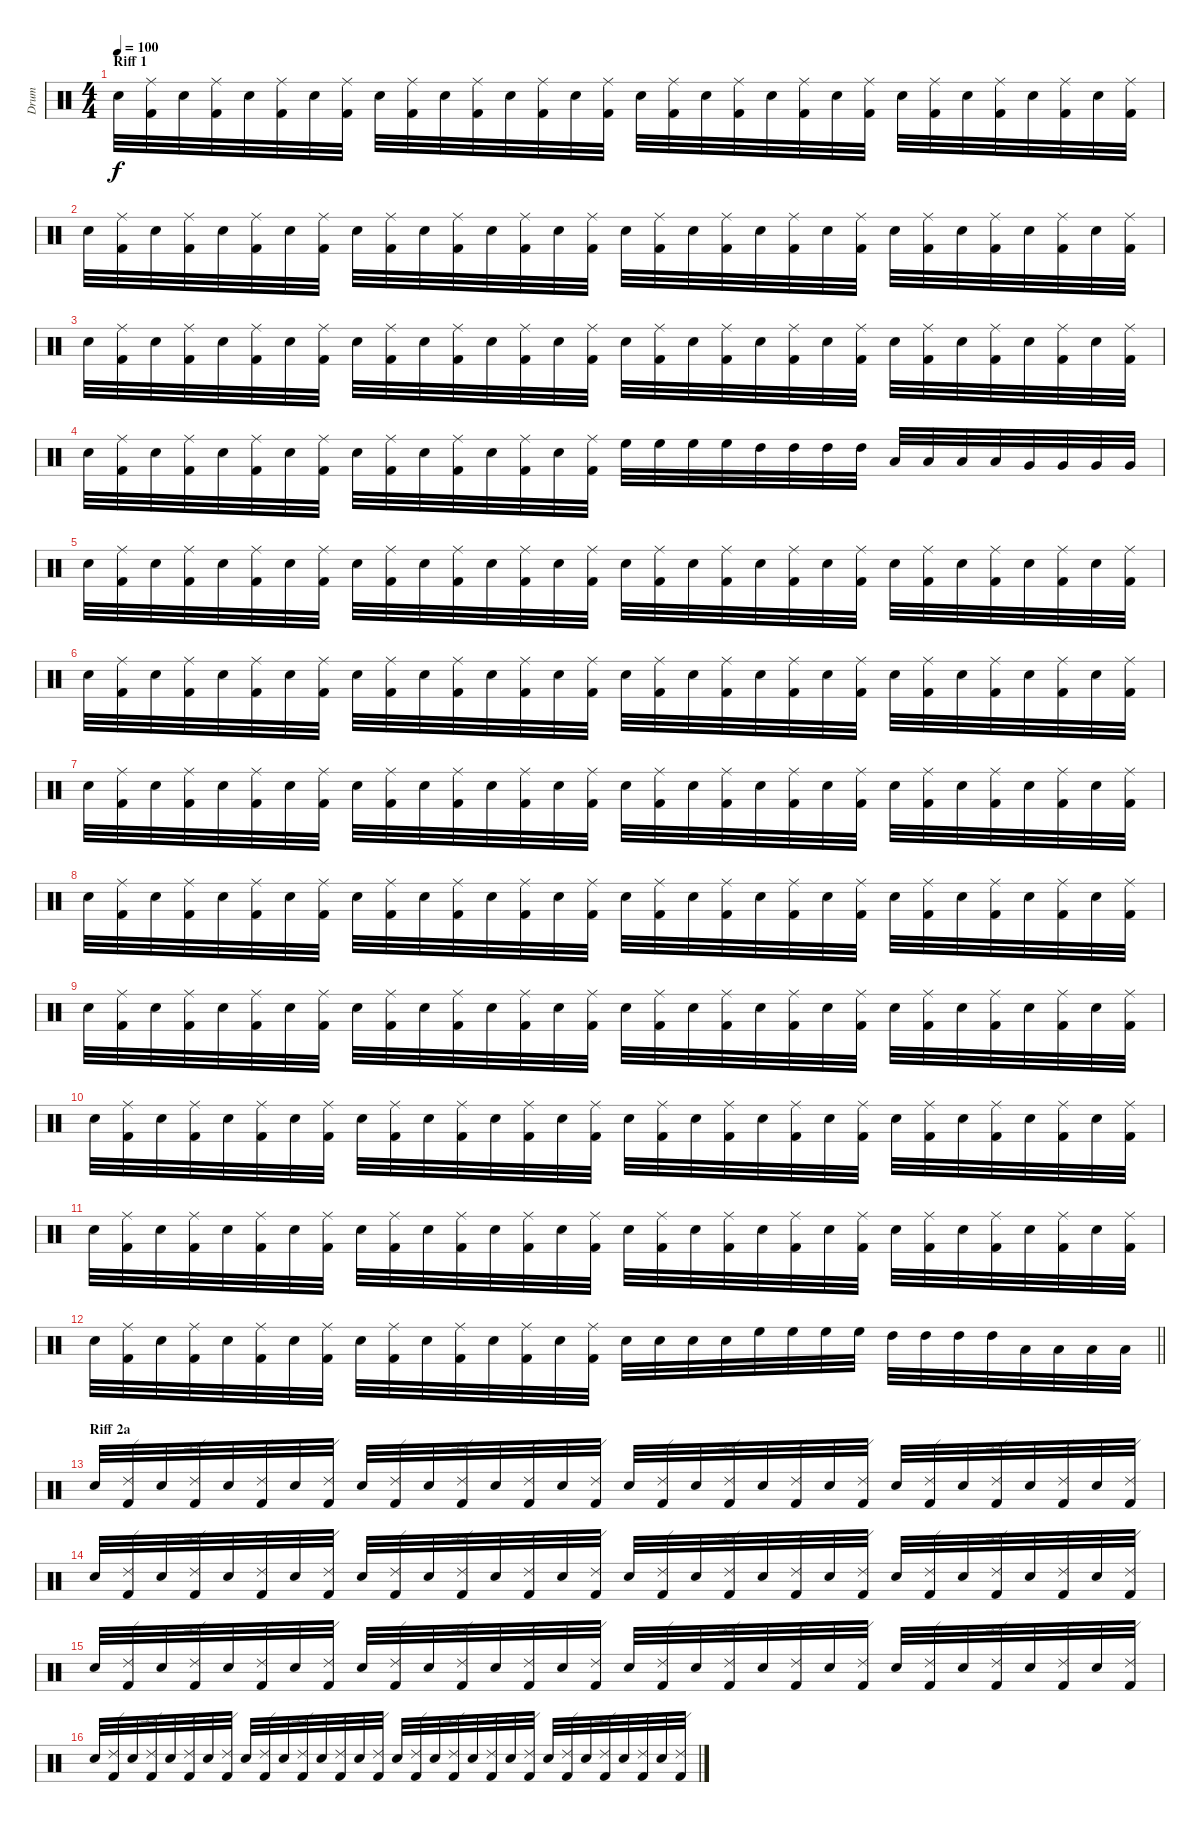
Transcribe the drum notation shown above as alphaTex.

\track ("Drum" "Drum") {instrument percussion}
\staff {score}
\articulation defaults
\ts (4 4)
\section ("" "Riff 1")
\tempo 100
\clef neutral
\ks c "Electric Snare (hit)".32{dy f}
("Ride (middle)" "Kick (hit) 2").32 "Electric Snare (hit)".32 ("Ride (middle)" "Kick (hit) 2").32 "Electric Snare (hit)".32 ("Ride (middle)" "Kick (hit) 2").32 "Electric Snare (hit)".32 ("Ride (middle)" "Kick (hit) 2").32 "Electric Snare (hit)".32 ("Ride (middle)" "Kick (hit) 2").32 "Electric Snare (hit)".32 ("Ride (middle)" "Kick (hit) 2").32 "Electric Snare (hit)".32 ("Ride (middle)" "Kick (hit) 2").32 "Electric Snare (hit)".32 ("Ride (middle)" "Kick (hit) 2").32 "Electric Snare (hit)".32 ("Ride (middle)" "Kick (hit) 2").32 "Electric Snare (hit)".32 ("Ride (middle)" "Kick (hit) 2").32 "Electric Snare (hit)".32 ("Ride (middle)" "Kick (hit) 2").32 "Electric Snare (hit)".32 ("Ride (middle)" "Kick (hit) 2").32 "Electric Snare (hit)".32 ("Ride (middle)" "Kick (hit) 2").32 "Electric Snare (hit)".32 ("Ride (middle)" "Kick (hit) 2").32 "Electric Snare (hit)".32 ("Ride (middle)" "Kick (hit) 2").32 "Electric Snare (hit)".32 ("Ride (middle)" "Kick (hit) 2").32 |
"Electric Snare (hit)".32 ("Ride (middle)" "Kick (hit) 2").32 "Electric Snare (hit)".32 ("Ride (middle)" "Kick (hit) 2").32 "Electric Snare (hit)".32 ("Ride (middle)" "Kick (hit) 2").32 "Electric Snare (hit)".32 ("Ride (middle)" "Kick (hit) 2").32 "Electric Snare (hit)".32 ("Ride (middle)" "Kick (hit) 2").32 "Electric Snare (hit)".32 ("Ride (middle)" "Kick (hit) 2").32 "Electric Snare (hit)".32 ("Ride (middle)" "Kick (hit) 2").32 "Electric Snare (hit)".32 ("Ride (middle)" "Kick (hit) 2").32 "Electric Snare (hit)".32 ("Ride (middle)" "Kick (hit) 2").32 "Electric Snare (hit)".32 ("Ride (middle)" "Kick (hit) 2").32 "Electric Snare (hit)".32 ("Ride (middle)" "Kick (hit) 2").32 "Electric Snare (hit)".32 ("Ride (middle)" "Kick (hit) 2").32 "Electric Snare (hit)".32 ("Ride (middle)" "Kick (hit) 2").32 "Electric Snare (hit)".32 ("Ride (middle)" "Kick (hit) 2").32 "Electric Snare (hit)".32 ("Ride (middle)" "Kick (hit) 2").32 "Electric Snare (hit)".32 ("Ride (middle)" "Kick (hit) 2").32 |
"Electric Snare (hit)".32 ("Ride (middle)" "Kick (hit) 2").32 "Electric Snare (hit)".32 ("Ride (middle)" "Kick (hit) 2").32 "Electric Snare (hit)".32 ("Ride (middle)" "Kick (hit) 2").32 "Electric Snare (hit)".32 ("Ride (middle)" "Kick (hit) 2").32 "Electric Snare (hit)".32 ("Ride (middle)" "Kick (hit) 2").32 "Electric Snare (hit)".32 ("Ride (middle)" "Kick (hit) 2").32 "Electric Snare (hit)".32 ("Ride (middle)" "Kick (hit) 2").32 "Electric Snare (hit)".32 ("Ride (middle)" "Kick (hit) 2").32 "Electric Snare (hit)".32 ("Ride (middle)" "Kick (hit) 2").32 "Electric Snare (hit)".32 ("Ride (middle)" "Kick (hit) 2").32 "Electric Snare (hit)".32 ("Ride (middle)" "Kick (hit) 2").32 "Electric Snare (hit)".32 ("Ride (middle)" "Kick (hit) 2").32 "Electric Snare (hit)".32 ("Ride (middle)" "Kick (hit) 2").32 "Electric Snare (hit)".32 ("Ride (middle)" "Kick (hit) 2").32 "Electric Snare (hit)".32 ("Ride (middle)" "Kick (hit) 2").32 "Electric Snare (hit)".32 ("Ride (middle)" "Kick (hit) 2").32 |
"Electric Snare (hit)".32 ("Ride (middle)" "Kick (hit) 2").32 "Electric Snare (hit)".32 ("Ride (middle)" "Kick (hit) 2").32 "Electric Snare (hit)".32 ("Ride (middle)" "Kick (hit) 2").32 "Electric Snare (hit)".32 ("Ride (middle)" "Kick (hit) 2").32 "Electric Snare (hit)".32 ("Ride (middle)" "Kick (hit) 2").32 "Electric Snare (hit)".32 ("Ride (middle)" "Kick (hit) 2").32 "Electric Snare (hit)".32 ("Ride (middle)" "Kick (hit) 2").32 "Electric Snare (hit)".32 ("Ride (middle)" "Kick (hit) 2").32 "High Floor Tom (hit)".32 "High Floor Tom (hit)".32 "High Floor Tom (hit)".32 "High Floor Tom (hit)".32 "High Tom (hit)".32 "High Tom (hit)".32 "High Tom (hit)".32 "High Tom (hit)".32 "Low Tom (hit)".32 "Low Tom (hit)".32 "Low Tom (hit)".32 "Low Tom (hit)".32 "Very Low Tom (hit)".32 "Very Low Tom (hit)".32 "Very Low Tom (hit)".32 "Very Low Tom (hit)".32 |
"Electric Snare (hit)".32 ("Ride (middle)" "Kick (hit) 2").32 "Electric Snare (hit)".32 ("Ride (middle)" "Kick (hit) 2").32 "Electric Snare (hit)".32 ("Ride (middle)" "Kick (hit) 2").32 "Electric Snare (hit)".32 ("Ride (middle)" "Kick (hit) 2").32 "Electric Snare (hit)".32 ("Ride (middle)" "Kick (hit) 2").32 "Electric Snare (hit)".32 ("Ride (middle)" "Kick (hit) 2").32 "Electric Snare (hit)".32 ("Ride (middle)" "Kick (hit) 2").32 "Electric Snare (hit)".32 ("Ride (middle)" "Kick (hit) 2").32 "Electric Snare (hit)".32 ("Ride (middle)" "Kick (hit) 2").32 "Electric Snare (hit)".32 ("Ride (middle)" "Kick (hit) 2").32 "Electric Snare (hit)".32 ("Ride (middle)" "Kick (hit) 2").32 "Electric Snare (hit)".32 ("Ride (middle)" "Kick (hit) 2").32 "Electric Snare (hit)".32 ("Ride (middle)" "Kick (hit) 2").32 "Electric Snare (hit)".32 ("Ride (middle)" "Kick (hit) 2").32 "Electric Snare (hit)".32 ("Ride (middle)" "Kick (hit) 2").32 "Electric Snare (hit)".32 ("Ride (middle)" "Kick (hit) 2").32 |
"Electric Snare (hit)".32 ("Ride (middle)" "Kick (hit) 2").32 "Electric Snare (hit)".32 ("Ride (middle)" "Kick (hit) 2").32 "Electric Snare (hit)".32 ("Ride (middle)" "Kick (hit) 2").32 "Electric Snare (hit)".32 ("Ride (middle)" "Kick (hit) 2").32 "Electric Snare (hit)".32 ("Ride (middle)" "Kick (hit) 2").32 "Electric Snare (hit)".32 ("Ride (middle)" "Kick (hit) 2").32 "Electric Snare (hit)".32 ("Ride (middle)" "Kick (hit) 2").32 "Electric Snare (hit)".32 ("Ride (middle)" "Kick (hit) 2").32 "Electric Snare (hit)".32 ("Ride (middle)" "Kick (hit) 2").32 "Electric Snare (hit)".32 ("Ride (middle)" "Kick (hit) 2").32 "Electric Snare (hit)".32 ("Ride (middle)" "Kick (hit) 2").32 "Electric Snare (hit)".32 ("Ride (middle)" "Kick (hit) 2").32 "Electric Snare (hit)".32 ("Ride (middle)" "Kick (hit) 2").32 "Electric Snare (hit)".32 ("Ride (middle)" "Kick (hit) 2").32 "Electric Snare (hit)".32 ("Ride (middle)" "Kick (hit) 2").32 "Electric Snare (hit)".32 ("Ride (middle)" "Kick (hit) 2").32 |
"Electric Snare (hit)".32 ("Ride (middle)" "Kick (hit) 2").32 "Electric Snare (hit)".32 ("Ride (middle)" "Kick (hit) 2").32 "Electric Snare (hit)".32 ("Ride (middle)" "Kick (hit) 2").32 "Electric Snare (hit)".32 ("Ride (middle)" "Kick (hit) 2").32 "Electric Snare (hit)".32 ("Ride (middle)" "Kick (hit) 2").32 "Electric Snare (hit)".32 ("Ride (middle)" "Kick (hit) 2").32 "Electric Snare (hit)".32 ("Ride (middle)" "Kick (hit) 2").32 "Electric Snare (hit)".32 ("Ride (middle)" "Kick (hit) 2").32 "Electric Snare (hit)".32 ("Ride (middle)" "Kick (hit) 2").32 "Electric Snare (hit)".32 ("Ride (middle)" "Kick (hit) 2").32 "Electric Snare (hit)".32 ("Ride (middle)" "Kick (hit) 2").32 "Electric Snare (hit)".32 ("Ride (middle)" "Kick (hit) 2").32 "Electric Snare (hit)".32 ("Ride (middle)" "Kick (hit) 2").32 "Electric Snare (hit)".32 ("Ride (middle)" "Kick (hit) 2").32 "Electric Snare (hit)".32 ("Ride (middle)" "Kick (hit) 2").32 "Electric Snare (hit)".32 ("Ride (middle)" "Kick (hit) 2").32 |
"Electric Snare (hit)".32 ("Ride (middle)" "Kick (hit) 2").32 "Electric Snare (hit)".32 ("Ride (middle)" "Kick (hit) 2").32 "Electric Snare (hit)".32 ("Ride (middle)" "Kick (hit) 2").32 "Electric Snare (hit)".32 ("Ride (middle)" "Kick (hit) 2").32 "Electric Snare (hit)".32 ("Ride (middle)" "Kick (hit) 2").32 "Electric Snare (hit)".32 ("Ride (middle)" "Kick (hit) 2").32 "Electric Snare (hit)".32 ("Ride (middle)" "Kick (hit) 2").32 "Electric Snare (hit)".32 ("Ride (middle)" "Kick (hit) 2").32 "Electric Snare (hit)".32 ("Ride (middle)" "Kick (hit) 2").32 "Electric Snare (hit)".32 ("Ride (middle)" "Kick (hit) 2").32 "Electric Snare (hit)".32 ("Ride (middle)" "Kick (hit) 2").32 "Electric Snare (hit)".32 ("Ride (middle)" "Kick (hit) 2").32 "Electric Snare (hit)".32 ("Ride (middle)" "Kick (hit) 2").32 "Electric Snare (hit)".32 ("Ride (middle)" "Kick (hit) 2").32 "Electric Snare (hit)".32 ("Ride (middle)" "Kick (hit) 2").32 "Electric Snare (hit)".32 ("Ride (middle)" "Kick (hit) 2").32 |
"Electric Snare (hit)".32 ("Ride (middle)" "Kick (hit) 2").32 "Electric Snare (hit)".32 ("Ride (middle)" "Kick (hit) 2").32 "Electric Snare (hit)".32 ("Ride (middle)" "Kick (hit) 2").32 "Electric Snare (hit)".32 ("Ride (middle)" "Kick (hit) 2").32 "Electric Snare (hit)".32 ("Ride (middle)" "Kick (hit) 2").32 "Electric Snare (hit)".32 ("Ride (middle)" "Kick (hit) 2").32 "Electric Snare (hit)".32 ("Ride (middle)" "Kick (hit) 2").32 "Electric Snare (hit)".32 ("Ride (middle)" "Kick (hit) 2").32 "Electric Snare (hit)".32 ("Ride (middle)" "Kick (hit) 2").32 "Electric Snare (hit)".32 ("Ride (middle)" "Kick (hit) 2").32 "Electric Snare (hit)".32 ("Ride (middle)" "Kick (hit) 2").32 "Electric Snare (hit)".32 ("Ride (middle)" "Kick (hit) 2").32 "Electric Snare (hit)".32 ("Ride (middle)" "Kick (hit) 2").32 "Electric Snare (hit)".32 ("Ride (middle)" "Kick (hit) 2").32 "Electric Snare (hit)".32 ("Ride (middle)" "Kick (hit) 2").32 "Electric Snare (hit)".32 ("Ride (middle)" "Kick (hit) 2").32 |
"Electric Snare (hit)".32 ("Ride (middle)" "Kick (hit) 2").32 "Electric Snare (hit)".32 ("Ride (middle)" "Kick (hit) 2").32 "Electric Snare (hit)".32 ("Ride (middle)" "Kick (hit) 2").32 "Electric Snare (hit)".32 ("Ride (middle)" "Kick (hit) 2").32 "Electric Snare (hit)".32 ("Ride (middle)" "Kick (hit) 2").32 "Electric Snare (hit)".32 ("Ride (middle)" "Kick (hit) 2").32 "Electric Snare (hit)".32 ("Ride (middle)" "Kick (hit) 2").32 "Electric Snare (hit)".32 ("Ride (middle)" "Kick (hit) 2").32 "Electric Snare (hit)".32 ("Ride (middle)" "Kick (hit) 2").32 "Electric Snare (hit)".32 ("Ride (middle)" "Kick (hit) 2").32 "Electric Snare (hit)".32 ("Ride (middle)" "Kick (hit) 2").32 "Electric Snare (hit)".32 ("Ride (middle)" "Kick (hit) 2").32 "Electric Snare (hit)".32 ("Ride (middle)" "Kick (hit) 2").32 "Electric Snare (hit)".32 ("Ride (middle)" "Kick (hit) 2").32 "Electric Snare (hit)".32 ("Ride (middle)" "Kick (hit) 2").32 "Electric Snare (hit)".32 ("Ride (middle)" "Kick (hit) 2").32 |
"Electric Snare (hit)".32 ("Ride (middle)" "Kick (hit) 2").32 "Electric Snare (hit)".32 ("Ride (middle)" "Kick (hit) 2").32 "Electric Snare (hit)".32 ("Ride (middle)" "Kick (hit) 2").32 "Electric Snare (hit)".32 ("Ride (middle)" "Kick (hit) 2").32 "Electric Snare (hit)".32 ("Ride (middle)" "Kick (hit) 2").32 "Electric Snare (hit)".32 ("Ride (middle)" "Kick (hit) 2").32 "Electric Snare (hit)".32 ("Ride (middle)" "Kick (hit) 2").32 "Electric Snare (hit)".32 ("Ride (middle)" "Kick (hit) 2").32 "Electric Snare (hit)".32 ("Ride (middle)" "Kick (hit) 2").32 "Electric Snare (hit)".32 ("Ride (middle)" "Kick (hit) 2").32 "Electric Snare (hit)".32 ("Ride (middle)" "Kick (hit) 2").32 "Electric Snare (hit)".32 ("Ride (middle)" "Kick (hit) 2").32 "Electric Snare (hit)".32 ("Ride (middle)" "Kick (hit) 2").32 "Electric Snare (hit)".32 ("Ride (middle)" "Kick (hit) 2").32 "Electric Snare (hit)".32 ("Ride (middle)" "Kick (hit) 2").32 "Electric Snare (hit)".32 ("Ride (middle)" "Kick (hit) 2").32 |
\barLineRight lightlight "Electric Snare (hit)".32
("Ride (middle)" "Kick (hit) 2").32 "Electric Snare (hit)".32 ("Ride (middle)" "Kick (hit) 2").32 "Electric Snare (hit)".32 ("Ride (middle)" "Kick (hit) 2").32 "Electric Snare (hit)".32 ("Ride (middle)" "Kick (hit) 2").32 "Electric Snare (hit)".32 ("Ride (middle)" "Kick (hit) 2").32 "Electric Snare (hit)".32 ("Ride (middle)" "Kick (hit) 2").32 "Electric Snare (hit)".32 ("Ride (middle)" "Kick (hit) 2").32 "Electric Snare (hit)".32 ("Ride (middle)" "Kick (hit) 2").32 "Electric Snare (hit)".32 "Electric Snare (hit)".32 "Electric Snare (hit)".32 "Electric Snare (hit)".32 "High Floor Tom (hit)".32 "High Floor Tom (hit)".32 "High Floor Tom (hit)".32 "High Floor Tom (hit)".32 "High Tom (hit)".32 "High Tom (hit)".32 "High Tom (hit)".32 "High Tom (hit)".32 "Low Tom (hit)".32 "Low Tom (hit)".32 "Low Tom (hit)".32 "Low Tom (hit)".32 |
\section ("" "Riff 2a")
"Electric Snare (hit)".32 ("Ride (edge) 2" "Kick (hit) 2").32 "Electric Snare (hit)".32 ("Ride (edge) 2" "Kick (hit) 2").32 "Electric Snare (hit)".32 ("Ride (edge) 2" "Kick (hit) 2").32 "Electric Snare (hit)".32 ("Ride (edge) 2" "Kick (hit) 2").32 "Electric Snare (hit)".32 ("Ride (edge) 2" "Kick (hit) 2").32 "Electric Snare (hit)".32 ("Ride (edge) 2" "Kick (hit) 2").32 "Electric Snare (hit)".32 ("Ride (edge) 2" "Kick (hit) 2").32 "Electric Snare (hit)".32 ("Ride (edge) 2" "Kick (hit) 2").32 "Electric Snare (hit)".32 ("Ride (edge) 2" "Kick (hit) 2").32 "Electric Snare (hit)".32 ("Ride (edge) 2" "Kick (hit) 2").32 "Electric Snare (hit)".32 ("Ride (edge) 2" "Kick (hit) 2").32 "Electric Snare (hit)".32 ("Ride (edge) 2" "Kick (hit) 2").32 "Electric Snare (hit)".32 ("Ride (edge) 2" "Kick (hit) 2").32 "Electric Snare (hit)".32 ("Ride (edge) 2" "Kick (hit) 2").32 "Electric Snare (hit)".32 ("Ride (edge) 2" "Kick (hit) 2").32 "Electric Snare (hit)".32 ("Ride (edge) 2" "Kick (hit) 2").32 |
"Electric Snare (hit)".32 ("Ride (edge) 2" "Kick (hit) 2").32 "Electric Snare (hit)".32 ("Ride (edge) 2" "Kick (hit) 2").32 "Electric Snare (hit)".32 ("Ride (edge) 2" "Kick (hit) 2").32 "Electric Snare (hit)".32 ("Ride (edge) 2" "Kick (hit) 2").32 "Electric Snare (hit)".32 ("Ride (edge) 2" "Kick (hit) 2").32 "Electric Snare (hit)".32 ("Ride (edge) 2" "Kick (hit) 2").32 "Electric Snare (hit)".32 ("Ride (edge) 2" "Kick (hit) 2").32 "Electric Snare (hit)".32 ("Ride (edge) 2" "Kick (hit) 2").32 "Electric Snare (hit)".32 ("Ride (edge) 2" "Kick (hit) 2").32 "Electric Snare (hit)".32 ("Ride (edge) 2" "Kick (hit) 2").32 "Electric Snare (hit)".32 ("Ride (edge) 2" "Kick (hit) 2").32 "Electric Snare (hit)".32 ("Ride (edge) 2" "Kick (hit) 2").32 "Electric Snare (hit)".32 ("Ride (edge) 2" "Kick (hit) 2").32 "Electric Snare (hit)".32 ("Ride (edge) 2" "Kick (hit) 2").32 "Electric Snare (hit)".32 ("Ride (edge) 2" "Kick (hit) 2").32 "Electric Snare (hit)".32 ("Ride (edge) 2" "Kick (hit) 2").32 |
"Electric Snare (hit)".32 ("Ride (edge) 2" "Kick (hit) 2").32 "Electric Snare (hit)".32 ("Ride (edge) 2" "Kick (hit) 2").32 "Electric Snare (hit)".32 ("Ride (edge) 2" "Kick (hit) 2").32 "Electric Snare (hit)".32 ("Ride (edge) 2" "Kick (hit) 2").32 "Electric Snare (hit)".32 ("Ride (edge) 2" "Kick (hit) 2").32 "Electric Snare (hit)".32 ("Ride (edge) 2" "Kick (hit) 2").32 "Electric Snare (hit)".32 ("Ride (edge) 2" "Kick (hit) 2").32 "Electric Snare (hit)".32 ("Ride (edge) 2" "Kick (hit) 2").32 "Electric Snare (hit)".32 ("Ride (edge) 2" "Kick (hit) 2").32 "Electric Snare (hit)".32 ("Ride (edge) 2" "Kick (hit) 2").32 "Electric Snare (hit)".32 ("Ride (edge) 2" "Kick (hit) 2").32 "Electric Snare (hit)".32 ("Ride (edge) 2" "Kick (hit) 2").32 "Electric Snare (hit)".32 ("Ride (edge) 2" "Kick (hit) 2").32 "Electric Snare (hit)".32 ("Ride (edge) 2" "Kick (hit) 2").32 "Electric Snare (hit)".32 ("Ride (edge) 2" "Kick (hit) 2").32 "Electric Snare (hit)".32 ("Ride (edge) 2" "Kick (hit) 2").32 |
"Electric Snare (hit)".32 ("Ride (edge) 2" "Kick (hit) 2").32 "Electric Snare (hit)".32 ("Ride (edge) 2" "Kick (hit) 2").32 "Electric Snare (hit)".32 ("Ride (edge) 2" "Kick (hit) 2").32 "Electric Snare (hit)".32 ("Ride (edge) 2" "Kick (hit) 2").32 "Electric Snare (hit)".32 ("Ride (edge) 2" "Kick (hit) 2").32 "Electric Snare (hit)".32 ("Ride (edge) 2" "Kick (hit) 2").32 "Electric Snare (hit)".32 ("Ride (edge) 2" "Kick (hit) 2").32 "Electric Snare (hit)".32 ("Ride (edge) 2" "Kick (hit) 2").32 "Electric Snare (hit)".32 ("Ride (edge) 2" "Kick (hit) 2").32 "Electric Snare (hit)".32 ("Ride (edge) 2" "Kick (hit) 2").32 "Electric Snare (hit)".32 ("Ride (edge) 2" "Kick (hit) 2").32 "Electric Snare (hit)".32 ("Ride (edge) 2" "Kick (hit) 2").32 "Electric Snare (hit)".32 ("Ride (edge) 2" "Kick (hit) 2").32 "Electric Snare (hit)".32 ("Ride (edge) 2" "Kick (hit) 2").32 "Electric Snare (hit)".32 ("Ride (edge) 2" "Kick (hit) 2").32 "Electric Snare (hit)".32 ("Ride (edge) 2" "Kick (hit) 2").32
